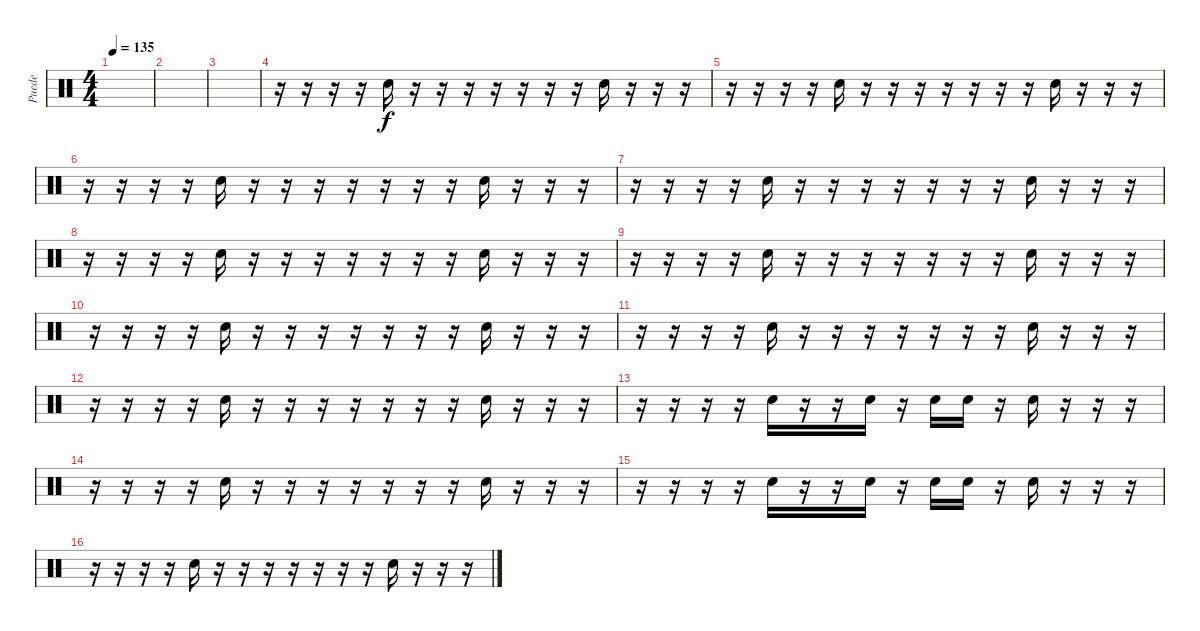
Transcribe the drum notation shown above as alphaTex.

\track ("Puede" "Puede") {instrument percussion}
\staff {score}
\articulation defaults
\ts (4 4)
\tempo 135
\clef neutral
\ks c
|
|
|
r.16 r.16 r.16 r.16 "Hand Clap (hit)".16 r.16 r.16 r.16 r.16 r.16 r.16 r.16 "Hand Clap (hit)".16 r.16 r.16 r.16 |
r.16 r.16 r.16 r.16 "Hand Clap (hit)".16 r.16 r.16 r.16 r.16 r.16 r.16 r.16 "Hand Clap (hit)".16 r.16 r.16 r.16 |
r.16 r.16 r.16 r.16 "Hand Clap (hit)".16 r.16 r.16 r.16 r.16 r.16 r.16 r.16 "Hand Clap (hit)".16 r.16 r.16 r.16 |
r.16 r.16 r.16 r.16 "Hand Clap (hit)".16 r.16 r.16 r.16 r.16 r.16 r.16 r.16 "Hand Clap (hit)".16 r.16 r.16 r.16 |
r.16 r.16 r.16 r.16 "Hand Clap (hit)".16 r.16 r.16 r.16 r.16 r.16 r.16 r.16 "Hand Clap (hit)".16 r.16 r.16 r.16 |
r.16 r.16 r.16 r.16 "Hand Clap (hit)".16 r.16 r.16 r.16 r.16 r.16 r.16 r.16 "Hand Clap (hit)".16 r.16 r.16 r.16 |
r.16 r.16 r.16 r.16 "Hand Clap (hit)".16 r.16 r.16 r.16 r.16 r.16 r.16 r.16 "Hand Clap (hit)".16 r.16 r.16 r.16 |
r.16 r.16 r.16 r.16 "Hand Clap (hit)".16 r.16 r.16 r.16 r.16 r.16 r.16 r.16 "Hand Clap (hit)".16 r.16 r.16 r.16 |
r.16 r.16 r.16 r.16 "Hand Clap (hit)".16 r.16 r.16 r.16 r.16 r.16 r.16 r.16 "Hand Clap (hit)".16 r.16 r.16 r.16 |
r.16 r.16 r.16 r.16 "Hand Clap (hit)".16 r.16 r.16 "Hand Clap (hit)".16 r.16 "Hand Clap (hit)".16 "Hand Clap (hit)".16 r.16 "Hand Clap (hit)".16 r.16 r.16 r.16 |
r.16 r.16 r.16 r.16 "Hand Clap (hit)".16 r.16 r.16 r.16 r.16 r.16 r.16 r.16 "Hand Clap (hit)".16 r.16 r.16 r.16 |
r.16 r.16 r.16 r.16 "Hand Clap (hit)".16 r.16 r.16 "Hand Clap (hit)".16 r.16 "Hand Clap (hit)".16 "Hand Clap (hit)".16 r.16 "Hand Clap (hit)".16 r.16 r.16 r.16 |
r.16 r.16 r.16 r.16 "Hand Clap (hit)".16 r.16 r.16 r.16 r.16 r.16 r.16 r.16 "Hand Clap (hit)".16 r.16 r.16 r.16
